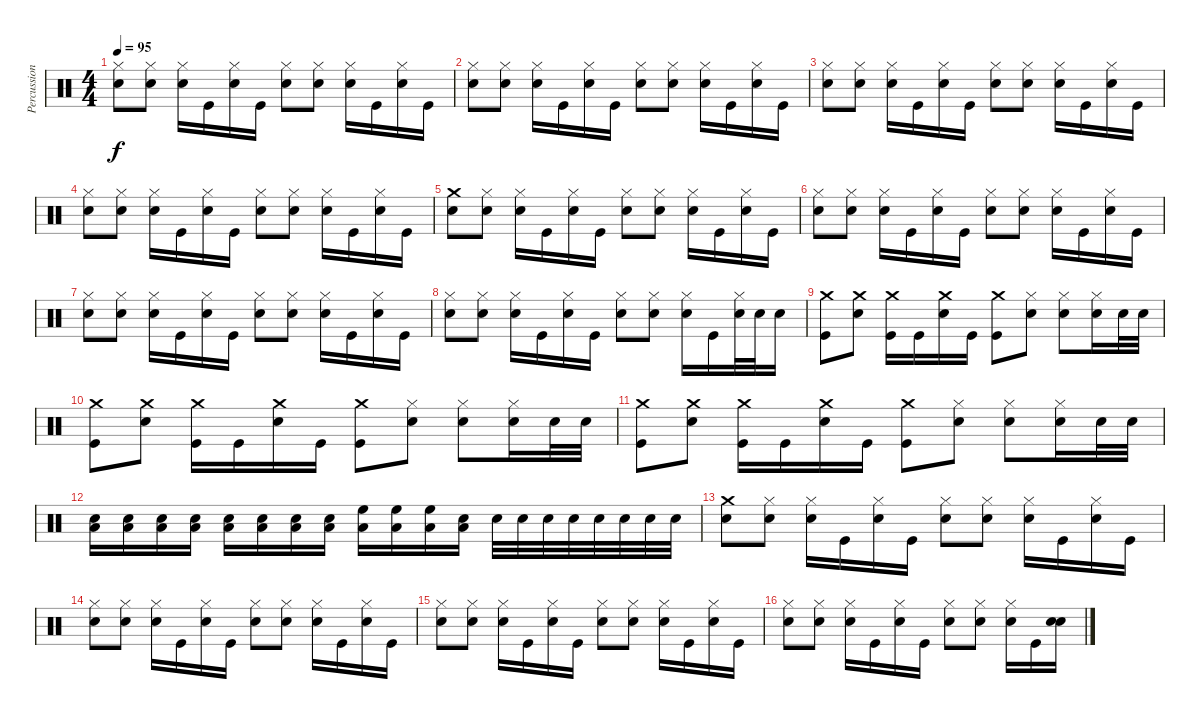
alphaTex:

\track ("Percussion" "Percussion") {instrument percussion}
\staff {score}
\articulation defaults
\ts (4 4)
\tempo 95
\clef neutral
\ks c
("Hi-Hat (closed)" "Electric Snare (hit)").8{dy f} ("Hi-Hat (closed)" "Electric Snare (hit)").8 ("Hi-Hat (closed)" "Electric Snare (hit)").16 "Kick (hit)".16 ("Hi-Hat (closed)" "Electric Snare (hit)").16 "Kick (hit)".16 ("Hi-Hat (closed)" "Electric Snare (hit)").8 ("Hi-Hat (closed)" "Electric Snare (hit)").8 ("Hi-Hat (closed)" "Electric Snare (hit)").16 "Kick (hit)".16 ("Hi-Hat (closed)" "Electric Snare (hit)").16 "Kick (hit)".16 |
("Hi-Hat (closed)" "Electric Snare (hit)").8 ("Hi-Hat (closed)" "Electric Snare (hit)").8 ("Hi-Hat (closed)" "Electric Snare (hit)").16 "Kick (hit)".16 ("Hi-Hat (closed)" "Electric Snare (hit)").16 "Kick (hit)".16 ("Hi-Hat (closed)" "Electric Snare (hit)").8 ("Hi-Hat (closed)" "Electric Snare (hit)").8 ("Hi-Hat (closed)" "Electric Snare (hit)").16 "Kick (hit)".16 ("Hi-Hat (closed)" "Electric Snare (hit)").16 "Kick (hit)".16 |
("Hi-Hat (closed)" "Electric Snare (hit)").8 ("Hi-Hat (closed)" "Electric Snare (hit)").8 ("Hi-Hat (closed)" "Electric Snare (hit)").16 "Kick (hit)".16 ("Hi-Hat (closed)" "Electric Snare (hit)").16 "Kick (hit)".16 ("Hi-Hat (closed)" "Electric Snare (hit)").8 ("Hi-Hat (closed)" "Electric Snare (hit)").8 ("Hi-Hat (closed)" "Electric Snare (hit)").16 "Kick (hit)".16 ("Hi-Hat (closed)" "Electric Snare (hit)").16 "Kick (hit)".16 |
("Hi-Hat (closed)" "Electric Snare (hit)").8 ("Hi-Hat (closed)" "Electric Snare (hit)").8 ("Hi-Hat (closed)" "Electric Snare (hit)").16 "Kick (hit)".16 ("Hi-Hat (closed)" "Electric Snare (hit)").16 "Kick (hit)".16 ("Hi-Hat (closed)" "Electric Snare (hit)").8 ("Hi-Hat (closed)" "Electric Snare (hit)").8 ("Hi-Hat (closed)" "Electric Snare (hit)").16 "Kick (hit)".16 ("Hi-Hat (closed)" "Electric Snare (hit)").16 "Kick (hit)".16 |
("Crash medium (hit)" "Electric Snare (hit)").8 ("Hi-Hat (closed)" "Electric Snare (hit)").8 ("Hi-Hat (closed)" "Electric Snare (hit)").16 "Kick (hit)".16 ("Hi-Hat (closed)" "Electric Snare (hit)").16 "Kick (hit)".16 ("Hi-Hat (closed)" "Electric Snare (hit)").8 ("Hi-Hat (closed)" "Electric Snare (hit)").8 ("Hi-Hat (closed)" "Electric Snare (hit)").16 "Kick (hit)".16 ("Hi-Hat (closed)" "Electric Snare (hit)").16 "Kick (hit)".16 |
("Hi-Hat (closed)" "Electric Snare (hit)").8 ("Hi-Hat (closed)" "Electric Snare (hit)").8 ("Hi-Hat (closed)" "Electric Snare (hit)").16 "Kick (hit)".16 ("Hi-Hat (closed)" "Electric Snare (hit)").16 "Kick (hit)".16 ("Hi-Hat (closed)" "Electric Snare (hit)").8 ("Hi-Hat (closed)" "Electric Snare (hit)").8 ("Hi-Hat (closed)" "Electric Snare (hit)").16 "Kick (hit)".16 ("Hi-Hat (closed)" "Electric Snare (hit)").16 "Kick (hit)".16 |
("Hi-Hat (closed)" "Electric Snare (hit)").8 ("Hi-Hat (closed)" "Electric Snare (hit)").8 ("Hi-Hat (closed)" "Electric Snare (hit)").16 "Kick (hit)".16 ("Hi-Hat (closed)" "Electric Snare (hit)").16 "Kick (hit)".16 ("Hi-Hat (closed)" "Electric Snare (hit)").8 ("Hi-Hat (closed)" "Electric Snare (hit)").8 ("Hi-Hat (closed)" "Electric Snare (hit)").16 "Kick (hit)".16 ("Hi-Hat (closed)" "Electric Snare (hit)").16 "Kick (hit)".16 |
("Hi-Hat (closed)" "Electric Snare (hit)").8 ("Hi-Hat (closed)" "Electric Snare (hit)").8 ("Hi-Hat (closed)" "Electric Snare (hit)").16 "Kick (hit)".16 ("Hi-Hat (closed)" "Electric Snare (hit)").16 "Kick (hit)".16 ("Hi-Hat (closed)" "Electric Snare (hit)").8 ("Hi-Hat (closed)" "Electric Snare (hit)").8 ("Hi-Hat (closed)" "Electric Snare (hit)").16 "Kick (hit)".16 ("Hi-Hat (closed)" "Electric Snare (hit)").32 "Electric Snare (hit)".32 "Electric Snare (hit)".16 |
("Crash medium (hit)" "Kick (hit)").8 ("Crash medium (hit)" "Electric Snare (hit)").8 ("Crash medium (hit)" "Kick (hit)").16 "Kick (hit)".16 ("Crash medium (hit)" "Electric Snare (hit)").16 "Kick (hit)".16 ("Crash medium (hit)" "Kick (hit)").8 ("Hi-Hat (closed)" "Electric Snare (hit)").8 ("Hi-Hat (closed)" "Electric Snare (hit)").8 ("Hi-Hat (closed)" "Electric Snare (hit)").16 "Electric Snare (hit)".32 "Electric Snare (hit)".32 |
("Crash medium (hit)" "Kick (hit)").8 ("Crash medium (hit)" "Electric Snare (hit)").8 ("Crash medium (hit)" "Kick (hit)").16 "Kick (hit)".16 ("Crash medium (hit)" "Electric Snare (hit)").16 "Kick (hit)".16 ("Crash medium (hit)" "Kick (hit)").8 ("Hi-Hat (closed)" "Electric Snare (hit)").8 ("Hi-Hat (closed)" "Electric Snare (hit)").8 ("Hi-Hat (closed)" "Electric Snare (hit)").16 "Electric Snare (hit)".32 "Electric Snare (hit)".32 |
("Crash medium (hit)" "Kick (hit)").8 ("Crash medium (hit)" "Electric Snare (hit)").8 ("Crash medium (hit)" "Kick (hit)").16 "Kick (hit)".16 ("Crash medium (hit)" "Electric Snare (hit)").16 "Kick (hit)".16 ("Crash medium (hit)" "Kick (hit)").8 ("Hi-Hat (closed)" "Electric Snare (hit)").8 ("Hi-Hat (closed)" "Electric Snare (hit)").8 ("Hi-Hat (closed)" "Electric Snare (hit)").16 "Electric Snare (hit)".32 "Electric Snare (hit)".32 |
("Low Floor Tom (hit)" "Electric Snare (hit)").16 ("Low Floor Tom (hit)" "Electric Snare (hit)").16 ("Low Floor Tom (hit)" "Electric Snare (hit)").16 ("Low Floor Tom (hit)" "Electric Snare (hit)").16 ("Low Floor Tom (hit)" "Electric Snare (hit)").16 ("Low Floor Tom (hit)" "Electric Snare (hit)").16 ("Low Floor Tom (hit)" "Electric Snare (hit)").16 ("Low Floor Tom (hit)" "Electric Snare (hit)").16 ("Low Floor Tom (hit)" "High Floor Tom (hit)").16 ("Low Floor Tom (hit)" "High Floor Tom (hit)").16 ("Low Floor Tom (hit)" "High Floor Tom (hit)").16 ("Low Floor Tom (hit)" "Electric Snare (hit)").16 "Electric Snare (hit)".32 "Electric Snare (hit)".32 "Electric Snare (hit)".32 "Electric Snare (hit)".32 "Electric Snare (hit)".32 "Electric Snare (hit)".32 "Electric Snare (hit)".32 "Electric Snare (hit)".32 |
("Crash medium (hit)" "Electric Snare (hit)").8 ("Hi-Hat (closed)" "Electric Snare (hit)").8 ("Hi-Hat (closed)" "Electric Snare (hit)").16 "Kick (hit)".16 ("Hi-Hat (closed)" "Electric Snare (hit)").16 "Kick (hit)".16 ("Hi-Hat (closed)" "Electric Snare (hit)").8 ("Hi-Hat (closed)" "Electric Snare (hit)").8 ("Hi-Hat (closed)" "Electric Snare (hit)").16 "Kick (hit)".16 ("Hi-Hat (closed)" "Electric Snare (hit)").16 "Kick (hit)".16 |
("Hi-Hat (closed)" "Electric Snare (hit)").8 ("Hi-Hat (closed)" "Electric Snare (hit)").8 ("Hi-Hat (closed)" "Electric Snare (hit)").16 "Kick (hit)".16 ("Hi-Hat (closed)" "Electric Snare (hit)").16 "Kick (hit)".16 ("Hi-Hat (closed)" "Electric Snare (hit)").8 ("Hi-Hat (closed)" "Electric Snare (hit)").8 ("Hi-Hat (closed)" "Electric Snare (hit)").16 "Kick (hit)".16 ("Hi-Hat (closed)" "Electric Snare (hit)").16 "Kick (hit)".16 |
("Hi-Hat (closed)" "Electric Snare (hit)").8 ("Hi-Hat (closed)" "Electric Snare (hit)").8 ("Hi-Hat (closed)" "Electric Snare (hit)").16 "Kick (hit)".16 ("Hi-Hat (closed)" "Electric Snare (hit)").16 "Kick (hit)".16 ("Hi-Hat (closed)" "Electric Snare (hit)").8 ("Hi-Hat (closed)" "Electric Snare (hit)").8 ("Hi-Hat (closed)" "Electric Snare (hit)").16 "Kick (hit)".16 ("Hi-Hat (closed)" "Electric Snare (hit)").16 "Kick (hit)".16 |
("Hi-Hat (closed)" "Electric Snare (hit)").8 ("Hi-Hat (closed)" "Electric Snare (hit)").8 ("Hi-Hat (closed)" "Electric Snare (hit)").16 "Kick (hit)".16 ("Hi-Hat (closed)" "Electric Snare (hit)").16 "Kick (hit)".16 ("Hi-Hat (closed)" "Electric Snare (hit)").8 ("Hi-Hat (closed)" "Electric Snare (hit)").8 ("Hi-Hat (closed)" "Electric Snare (hit)").16 "Kick (hit)".16 ("Electric Snare (hit)" "Electric Snare (hit)").16
